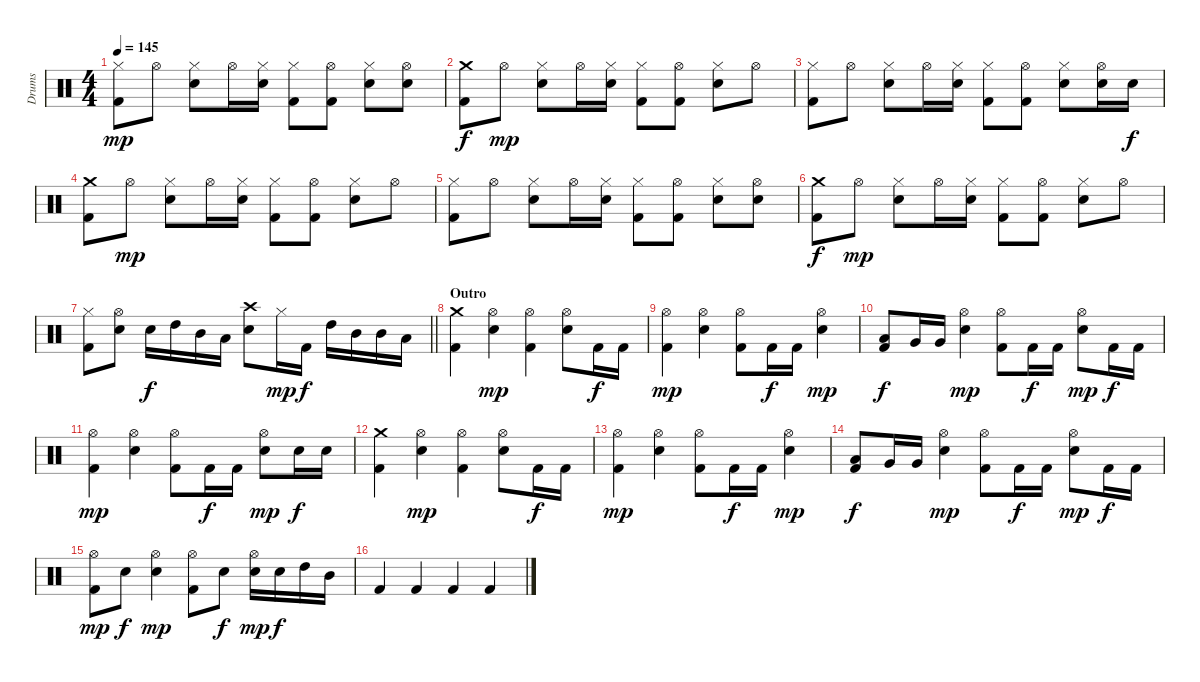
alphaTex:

\track ("Drums" "Drums") {instrument percussion}
\staff {score}
\articulation defaults
\ts (4 4)
\tempo 145
\clef neutral
\ks c
("Hi-Hat (closed)" "Kick (hit) 2").8{dy mp} "Hi-Hat (open)".8 ("Hi-Hat (closed)" "Snare (hit) 2").8 "Hi-Hat (open)".16 ("Hi-Hat (closed)" "Snare (hit) 2").16 ("Hi-Hat (closed)" "Kick (hit) 2").8 ("Hi-Hat (open)" "Kick (hit) 2").8 ("Hi-Hat (closed)" "Snare (hit) 2").8 ("Hi-Hat (open)" "Snare (hit) 2").8 |
("Crash medium (hit)" "Kick (hit) 2").8{dy f} "Hi-Hat (open)".8{dy mp} ("Hi-Hat (closed)" "Snare (hit) 2").8 "Hi-Hat (open)".16 ("Hi-Hat (closed)" "Snare (hit) 2").16 ("Hi-Hat (closed)" "Kick (hit) 2").8 ("Hi-Hat (open)" "Kick (hit) 2").8 ("Hi-Hat (closed)" "Snare (hit) 2").8 "Hi-Hat (open)".8 |
("Hi-Hat (closed)" "Kick (hit) 2").8 "Hi-Hat (open)".8 ("Hi-Hat (closed)" "Snare (hit) 2").8 "Hi-Hat (open)".16 ("Hi-Hat (closed)" "Snare (hit) 2").16 ("Hi-Hat (closed)" "Kick (hit) 2").8 ("Hi-Hat (open)" "Kick (hit) 2").8 ("Hi-Hat (closed)" "Snare (hit) 2").8 ("Hi-Hat (open)" "Snare (hit) 2").16 "Snare (hit) 2".16{dy f} |
("Crash medium (hit)" "Kick (hit) 2").8 "Hi-Hat (open)".8{dy mp} ("Hi-Hat (closed)" "Snare (hit) 2").8 "Hi-Hat (open)".16 ("Hi-Hat (closed)" "Snare (hit) 2").16 ("Hi-Hat (closed)" "Kick (hit) 2").8 ("Hi-Hat (open)" "Kick (hit) 2").8 ("Hi-Hat (closed)" "Snare (hit) 2").8 "Hi-Hat (open)".8 |
("Hi-Hat (closed)" "Kick (hit) 2").8 "Hi-Hat (open)".8 ("Hi-Hat (closed)" "Snare (hit) 2").8 "Hi-Hat (open)".16 ("Hi-Hat (closed)" "Snare (hit) 2").16 ("Hi-Hat (closed)" "Kick (hit) 2").8 ("Hi-Hat (open)" "Kick (hit) 2").8 ("Hi-Hat (closed)" "Snare (hit) 2").8 ("Hi-Hat (open)" "Snare (hit) 2").8 |
("Crash medium (hit)" "Kick (hit) 2").8{dy f} "Hi-Hat (open)".8{dy mp} ("Hi-Hat (closed)" "Snare (hit) 2").8 "Hi-Hat (open)".16 ("Hi-Hat (closed)" "Snare (hit) 2").16 ("Hi-Hat (closed)" "Kick (hit) 2").8 ("Hi-Hat (open)" "Kick (hit) 2").8 ("Hi-Hat (closed)" "Snare (hit) 2").8 "Hi-Hat (open)".8 |
\barLineRight lightlight
("Hi-Hat (closed)" "Kick (hit) 2").8 ("Hi-Hat (open)" "Snare (hit) 2").8 "Snare (hit) 2".16{dy f} "High Tom (hit)".16 "Mid Tom (hit)".16 "Low Tom (hit)".16 ("Crash high (hit)" "Snare (hit) 2").8 "Hi-Hat (closed)".16{dy mp} "Kick (hit) 2".16{dy f} "High Tom (hit)".16 "Mid Tom (hit)".16 "Mid Tom (hit)".16 "Low Tom (hit)".16 |
\section ("" "Outro")
("Crash medium (hit)" "Kick (hit) 2").4 ("Hi-Hat (open)" "Snare (hit) 2").4{dy mp} ("Hi-Hat (open)" "Kick (hit) 2").4 ("Hi-Hat (open)" "Snare (hit) 2").8 "Kick (hit) 2".16{dy f} "Kick (hit) 2".16 |
("Hi-Hat (open)" "Kick (hit) 2").4{dy mp} ("Hi-Hat (open)" "Snare (hit) 2").4 ("Hi-Hat (open)" "Kick (hit) 2").8 "Kick (hit) 2".16{dy f} "Kick (hit) 2".16 ("Hi-Hat (open)" "Snare (hit) 2").4{dy mp} |
("Low Floor Tom (hit)" "Kick (hit) 2").8{dy f} "Very Low Tom (hit)".16 "Very Low Tom (hit)".16 ("Hi-Hat (open)" "Snare (hit) 2").4{dy mp} ("Hi-Hat (open)" "Kick (hit) 2").8 "Kick (hit) 2".16{dy f} "Kick (hit) 2".16 ("Hi-Hat (open)" "Snare (hit) 2").8{dy mp} "Kick (hit) 2".16{dy f} "Kick (hit) 2".16 |
("Hi-Hat (open)" "Kick (hit) 2").4{dy mp} ("Hi-Hat (open)" "Snare (hit) 2").4 ("Hi-Hat (open)" "Kick (hit) 2").8 "Kick (hit) 2".16{dy f} "Kick (hit) 2".16 ("Hi-Hat (open)" "Snare (hit) 2").8{dy mp} "Snare (hit) 2".16{dy f} "Snare (hit) 2".16 |
("Crash medium (hit)" "Kick (hit) 2").4 ("Hi-Hat (open)" "Snare (hit) 2").4{dy mp} ("Hi-Hat (open)" "Kick (hit) 2").4 ("Hi-Hat (open)" "Snare (hit) 2").8 "Kick (hit) 2".16{dy f} "Kick (hit) 2".16 |
("Hi-Hat (open)" "Kick (hit) 2").4{dy mp} ("Hi-Hat (open)" "Snare (hit) 2").4 ("Hi-Hat (open)" "Kick (hit) 2").8 "Kick (hit) 2".16{dy f} "Kick (hit) 2".16 ("Hi-Hat (open)" "Snare (hit) 2").4{dy mp} |
("Low Floor Tom (hit)" "Kick (hit) 2").8{dy f} "Very Low Tom (hit)".16 "Very Low Tom (hit)".16 ("Hi-Hat (open)" "Snare (hit) 2").4{dy mp} ("Hi-Hat (open)" "Kick (hit) 2").8 "Kick (hit) 2".16{dy f} "Kick (hit) 2".16 ("Hi-Hat (open)" "Snare (hit) 2").8{dy mp} "Kick (hit) 2".16{dy f} "Kick (hit) 2".16 |
("Hi-Hat (open)" "Kick (hit) 2").8{dy mp} "Snare (hit) 2".8{dy f} ("Hi-Hat (open)" "Snare (hit) 2").4{dy mp} ("Hi-Hat (open)" "Kick (hit) 2").8 "Snare (hit) 2".8{dy f} ("Hi-Hat (open)" "Snare (hit) 2").16{dy mp} "Snare (hit) 2".16{dy f} "High Tom (hit)".16 "Mid Tom (hit)".16 |
"Kick (hit) 2".4 "Kick (hit) 2".4 "Kick (hit) 2".4 "Kick (hit) 2".4
